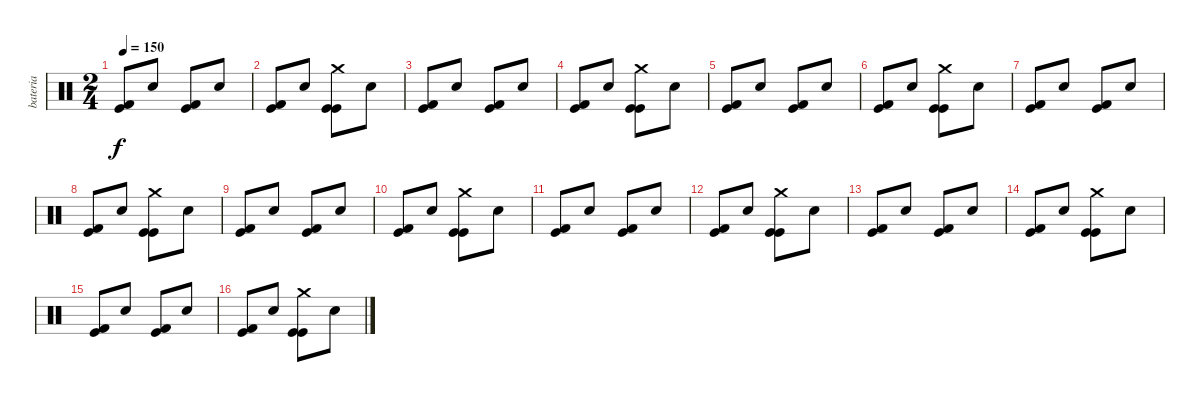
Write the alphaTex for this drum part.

\track ("bateria" "bateria") {instrument percussion}
\staff {score}
\articulation defaults
\ts (2 4)
\tempo 150
\clef neutral
\ks c
("Kick (hit) 2" "Kick (hit)").8{dy f} "Electric Snare (hit)".8 ("Kick (hit) 2" "Kick (hit)").8 "Electric Snare (hit)".8 |
("Kick (hit) 2" "Kick (hit)").8 "Electric Snare (hit)".8 ("Crash medium (hit)" "Kick (hit)" "Kick (hit)").8 "Electric Snare (hit)".8 |
("Kick (hit) 2" "Kick (hit)").8 "Electric Snare (hit)".8 ("Kick (hit) 2" "Kick (hit)").8 "Electric Snare (hit)".8 |
("Kick (hit) 2" "Kick (hit)").8 "Electric Snare (hit)".8 ("Crash medium (hit)" "Kick (hit)" "Kick (hit)").8 "Electric Snare (hit)".8 |
("Kick (hit) 2" "Kick (hit)").8 "Electric Snare (hit)".8 ("Kick (hit) 2" "Kick (hit)").8 "Electric Snare (hit)".8 |
("Kick (hit) 2" "Kick (hit)").8 "Electric Snare (hit)".8 ("Crash medium (hit)" "Kick (hit)" "Kick (hit)").8 "Electric Snare (hit)".8 |
("Kick (hit) 2" "Kick (hit)").8 "Electric Snare (hit)".8 ("Kick (hit) 2" "Kick (hit)").8 "Electric Snare (hit)".8 |
("Kick (hit) 2" "Kick (hit)").8 "Electric Snare (hit)".8 ("Crash medium (hit)" "Kick (hit)" "Kick (hit)").8 "Electric Snare (hit)".8 |
("Kick (hit) 2" "Kick (hit)").8 "Electric Snare (hit)".8 ("Kick (hit) 2" "Kick (hit)").8 "Electric Snare (hit)".8 |
("Kick (hit) 2" "Kick (hit)").8 "Electric Snare (hit)".8 ("Crash medium (hit)" "Kick (hit)" "Kick (hit)").8 "Electric Snare (hit)".8 |
("Kick (hit) 2" "Kick (hit)").8 "Electric Snare (hit)".8 ("Kick (hit) 2" "Kick (hit)").8 "Electric Snare (hit)".8 |
("Kick (hit) 2" "Kick (hit)").8 "Electric Snare (hit)".8 ("Crash medium (hit)" "Kick (hit)" "Kick (hit)").8 "Electric Snare (hit)".8 |
("Kick (hit) 2" "Kick (hit)").8 "Electric Snare (hit)".8 ("Kick (hit) 2" "Kick (hit)").8 "Electric Snare (hit)".8 |
("Kick (hit) 2" "Kick (hit)").8 "Electric Snare (hit)".8 ("Crash medium (hit)" "Kick (hit)" "Kick (hit)").8 "Electric Snare (hit)".8 |
("Kick (hit) 2" "Kick (hit)").8 "Electric Snare (hit)".8 ("Kick (hit) 2" "Kick (hit)").8 "Electric Snare (hit)".8 |
("Kick (hit) 2" "Kick (hit)").8 "Electric Snare (hit)".8 ("Crash medium (hit)" "Kick (hit)" "Kick (hit)").8 "Electric Snare (hit)".8
